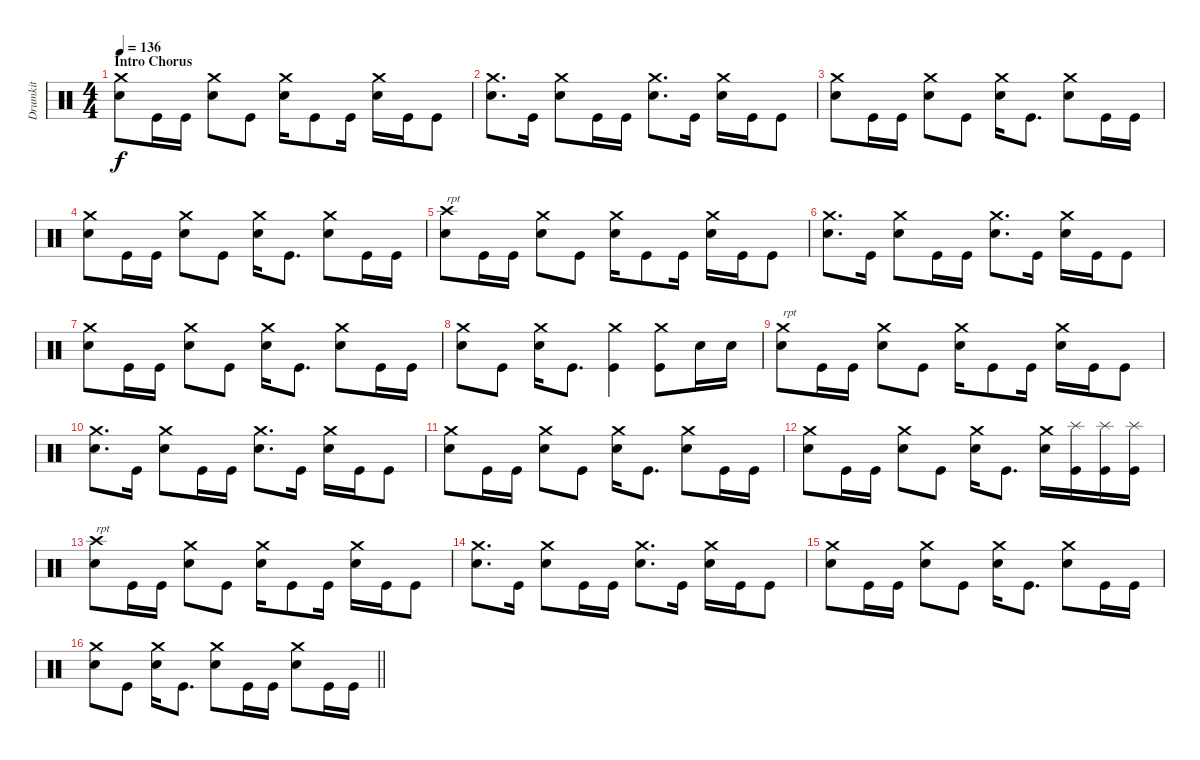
\track ("Drumkit" "Drumkit") {instrument percussion}
\staff {score}
\articulation defaults
\ts (4 4)
\section ("" "Intro Chorus")
\tempo 136
\clef neutral
\ks c
("Crash medium (hit)" "Snare (hit) 2").8{dy f} "Kick (hit)".16 "Kick (hit)".16 ("Crash medium (hit)" "Snare (hit) 2").8 "Kick (hit)".8 ("Crash medium (hit)" "Snare (hit) 2").16 "Kick (hit)".8 "Kick (hit)".16 ("Crash medium (hit)" "Snare (hit) 2").16 "Kick (hit)".16 "Kick (hit)".8 |
("Snare (hit) 2" "Crash medium (hit)").8{d} "Kick (hit)".16 ("Snare (hit) 2" "Crash medium (hit)").8 "Kick (hit)".16 "Kick (hit)".16 ("Snare (hit) 2" "Crash medium (hit)").8{d} "Kick (hit)".16 ("Snare (hit) 2" "Crash medium (hit)").16 "Kick (hit)".16 "Kick (hit)".8 |
("Crash medium (hit)" "Snare (hit) 2").8 "Kick (hit)".16 "Kick (hit)".16 ("Crash medium (hit)" "Snare (hit) 2").8 "Kick (hit)".8 ("Crash medium (hit)" "Snare (hit) 2").16 "Kick (hit)".8{d} ("Crash medium (hit)" "Snare (hit) 2").8 "Kick (hit)".16 "Kick (hit)".16 |
("Crash medium (hit)" "Snare (hit) 2").8 "Kick (hit)".16 "Kick (hit)".16 ("Crash medium (hit)" "Snare (hit) 2").8 "Kick (hit)".8 ("Crash medium (hit)" "Snare (hit) 2").16 "Kick (hit)".8{d} ("Crash medium (hit)" "Snare (hit) 2").8 "Kick (hit)".16 "Kick (hit)".16 |
("Crash high (hit)" "Snare (hit) 2").8{txt "rpt"} "Kick (hit)".16 "Kick (hit)".16 ("Crash medium (hit)" "Snare (hit) 2").8 "Kick (hit)".8 ("Crash medium (hit)" "Snare (hit) 2").16 "Kick (hit)".8 "Kick (hit)".16 ("Crash medium (hit)" "Snare (hit) 2").16 "Kick (hit)".16 "Kick (hit)".8 |
("Snare (hit) 2" "Crash medium (hit)").8{d} "Kick (hit)".16 ("Snare (hit) 2" "Crash medium (hit)").8 "Kick (hit)".16 "Kick (hit)".16 ("Snare (hit) 2" "Crash medium (hit)").8{d} "Kick (hit)".16 ("Snare (hit) 2" "Crash medium (hit)").16 "Kick (hit)".16 "Kick (hit)".8 |
("Crash medium (hit)" "Snare (hit) 2").8 "Kick (hit)".16 "Kick (hit)".16 ("Crash medium (hit)" "Snare (hit) 2").8 "Kick (hit)".8 ("Crash medium (hit)" "Snare (hit) 2").16 "Kick (hit)".8{d} ("Crash medium (hit)" "Snare (hit) 2").8 "Kick (hit)".16 "Kick (hit)".16 |
("Snare (hit) 2" "Crash medium (hit)").8 "Kick (hit)".8 ("Snare (hit) 2" "Crash medium (hit)").16 "Kick (hit)".8{d} ("Crash medium (hit)" "Kick (hit)").4 ("Kick (hit)" "Crash medium (hit)").8 "Snare (hit) 2".16 "Snare (hit) 2".16 |
("Crash medium (hit)" "Snare (hit) 2").8{txt "rpt"} "Kick (hit)".16 "Kick (hit)".16 ("Crash medium (hit)" "Snare (hit) 2").8 "Kick (hit)".8 ("Crash medium (hit)" "Snare (hit) 2").16 "Kick (hit)".8 "Kick (hit)".16 ("Crash medium (hit)" "Snare (hit) 2").16 "Kick (hit)".16 "Kick (hit)".8 |
("Snare (hit) 2" "Crash medium (hit)").8{d} "Kick (hit)".16 ("Snare (hit) 2" "Crash medium (hit)").8 "Kick (hit)".16 "Kick (hit)".16 ("Snare (hit) 2" "Crash medium (hit)").8{d} "Kick (hit)".16 ("Snare (hit) 2" "Crash medium (hit)").16 "Kick (hit)".16 "Kick (hit)".8 |
("Crash medium (hit)" "Snare (hit) 2").8 "Kick (hit)".16 "Kick (hit)".16 ("Crash medium (hit)" "Snare (hit) 2").8 "Kick (hit)".8 ("Crash medium (hit)" "Snare (hit) 2").16 "Kick (hit)".8{d} ("Crash medium (hit)" "Snare (hit) 2").8 "Kick (hit)".16 "Kick (hit)".16 |
("Crash medium (hit)" "Snare (hit) 2").8 "Kick (hit)".16 "Kick (hit)".16 ("Crash medium (hit)" "Snare (hit) 2").8 "Kick (hit)".8 ("Crash medium (hit)" "Snare (hit) 2").16 "Kick (hit)".8{d} ("Crash medium (hit)" "Snare (hit) 2").16 ("Splash (hit)" "Kick (hit)").16 ("Kick (hit)" "Splash (hit)").16 ("Kick (hit)" "Splash (hit)").16 |
("Crash high (hit)" "Snare (hit) 2").8{txt "rpt"} "Kick (hit)".16 "Kick (hit)".16 ("Crash medium (hit)" "Snare (hit) 2").8 "Kick (hit)".8 ("Crash medium (hit)" "Snare (hit) 2").16 "Kick (hit)".8 "Kick (hit)".16 ("Crash medium (hit)" "Snare (hit) 2").16 "Kick (hit)".16 "Kick (hit)".8 |
("Snare (hit) 2" "Crash medium (hit)").8{d} "Kick (hit)".16 ("Snare (hit) 2" "Crash medium (hit)").8 "Kick (hit)".16 "Kick (hit)".16 ("Snare (hit) 2" "Crash medium (hit)").8{d} "Kick (hit)".16 ("Snare (hit) 2" "Crash medium (hit)").16 "Kick (hit)".16 "Kick (hit)".8 |
("Crash medium (hit)" "Snare (hit) 2").8 "Kick (hit)".16 "Kick (hit)".16 ("Crash medium (hit)" "Snare (hit) 2").8 "Kick (hit)".8 ("Crash medium (hit)" "Snare (hit) 2").16 "Kick (hit)".8{d} ("Crash medium (hit)" "Snare (hit) 2").8 "Kick (hit)".16 "Kick (hit)".16 |
\barLineRight lightlight
("Snare (hit) 2" "Crash medium (hit)").8 "Kick (hit)".8 ("Snare (hit) 2" "Crash medium (hit)").16 "Kick (hit)".8{d} ("Crash medium (hit)" "Snare (hit) 2").8 "Kick (hit)".16 "Kick (hit)".16 ("Crash medium (hit)" "Snare (hit) 2").8 "Kick (hit)".16 "Kick (hit)".16
